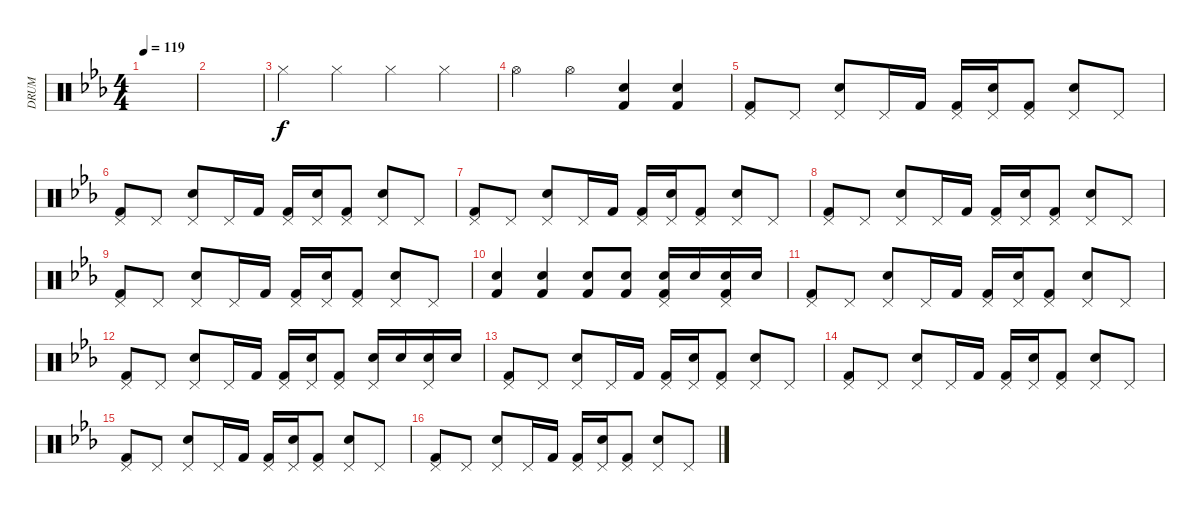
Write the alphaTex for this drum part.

\track ("DRUM" "DRUM") {instrument percussion}
\staff {score}
\articulation defaults
\ts (4 4)
\tempo 119
\clef neutral
\ks eb
|
|
"Hi-Hat (closed)".4 "Hi-Hat (closed)".4 "Hi-Hat (closed)".4 "Hi-Hat (closed)".4 |
"Hi-Hat (open)".4 "Hi-Hat (open)".4 ("Electric Snare (hit)" "Kick (hit) 2").4 ("Electric Snare (hit)" "Kick (hit) 2").4 |
("Pedal Hi-Hat (hit)" "Kick (hit) 2").8 "Pedal Hi-Hat (hit)".8 ("Pedal Hi-Hat (hit)" "Electric Snare (hit)").8 "Pedal Hi-Hat (hit)".16 "Kick (hit) 2".16 ("Pedal Hi-Hat (hit)" "Kick (hit) 2").16 ("Pedal Hi-Hat (hit)" "Electric Snare (hit)").16 ("Pedal Hi-Hat (hit)" "Kick (hit) 2").8 ("Pedal Hi-Hat (hit)" "Electric Snare (hit)").8 "Pedal Hi-Hat (hit)".8 |
("Pedal Hi-Hat (hit)" "Kick (hit) 2").8 "Pedal Hi-Hat (hit)".8 ("Pedal Hi-Hat (hit)" "Electric Snare (hit)").8 "Pedal Hi-Hat (hit)".16 "Kick (hit) 2".16 ("Pedal Hi-Hat (hit)" "Kick (hit) 2").16 ("Pedal Hi-Hat (hit)" "Electric Snare (hit)").16 ("Pedal Hi-Hat (hit)" "Kick (hit) 2").8 ("Pedal Hi-Hat (hit)" "Electric Snare (hit)").8 "Pedal Hi-Hat (hit)".8 |
("Pedal Hi-Hat (hit)" "Kick (hit) 2").8 "Pedal Hi-Hat (hit)".8 ("Pedal Hi-Hat (hit)" "Electric Snare (hit)").8 "Pedal Hi-Hat (hit)".16 "Kick (hit) 2".16 ("Pedal Hi-Hat (hit)" "Kick (hit) 2").16 ("Pedal Hi-Hat (hit)" "Electric Snare (hit)").16 ("Pedal Hi-Hat (hit)" "Kick (hit) 2").8 ("Pedal Hi-Hat (hit)" "Electric Snare (hit)").8 "Pedal Hi-Hat (hit)".8 |
("Pedal Hi-Hat (hit)" "Kick (hit) 2").8 "Pedal Hi-Hat (hit)".8 ("Pedal Hi-Hat (hit)" "Electric Snare (hit)").8 "Pedal Hi-Hat (hit)".16 "Kick (hit) 2".16 ("Pedal Hi-Hat (hit)" "Kick (hit) 2").16 ("Pedal Hi-Hat (hit)" "Electric Snare (hit)").16 ("Pedal Hi-Hat (hit)" "Kick (hit) 2").8 ("Pedal Hi-Hat (hit)" "Electric Snare (hit)").8 "Pedal Hi-Hat (hit)".8 |
("Pedal Hi-Hat (hit)" "Kick (hit) 2").8 "Pedal Hi-Hat (hit)".8 ("Pedal Hi-Hat (hit)" "Electric Snare (hit)").8 "Pedal Hi-Hat (hit)".16 "Kick (hit) 2".16 ("Pedal Hi-Hat (hit)" "Kick (hit) 2").16 ("Pedal Hi-Hat (hit)" "Electric Snare (hit)").16 ("Pedal Hi-Hat (hit)" "Kick (hit) 2").8 ("Pedal Hi-Hat (hit)" "Electric Snare (hit)").8 "Pedal Hi-Hat (hit)".8 |
("Electric Snare (hit)" "Kick (hit) 2").4 ("Electric Snare (hit)" "Kick (hit) 2").4 ("Electric Snare (hit)" "Kick (hit) 2").8 ("Electric Snare (hit)" "Kick (hit) 2").8 ("Pedal Hi-Hat (hit)" "Electric Snare (hit)" "Kick (hit) 2").16 "Electric Snare (hit)".16 ("Pedal Hi-Hat (hit)" "Electric Snare (hit)" "Kick (hit) 2").16 "Electric Snare (hit)".16 |
("Pedal Hi-Hat (hit)" "Kick (hit) 2").8 "Pedal Hi-Hat (hit)".8 ("Pedal Hi-Hat (hit)" "Electric Snare (hit)").8 "Pedal Hi-Hat (hit)".16 "Kick (hit) 2".16 ("Pedal Hi-Hat (hit)" "Kick (hit) 2").16 ("Pedal Hi-Hat (hit)" "Electric Snare (hit)").16 ("Pedal Hi-Hat (hit)" "Kick (hit) 2").8 ("Pedal Hi-Hat (hit)" "Electric Snare (hit)").8 "Pedal Hi-Hat (hit)".8 |
("Pedal Hi-Hat (hit)" "Kick (hit) 2").8 "Pedal Hi-Hat (hit)".8 ("Pedal Hi-Hat (hit)" "Electric Snare (hit)").8 "Pedal Hi-Hat (hit)".16 "Kick (hit) 2".16 ("Pedal Hi-Hat (hit)" "Kick (hit) 2").16 ("Pedal Hi-Hat (hit)" "Electric Snare (hit)").16 ("Pedal Hi-Hat (hit)" "Kick (hit) 2").8 ("Pedal Hi-Hat (hit)" "Electric Snare (hit)").16 "Electric Snare (hit)".16 ("Pedal Hi-Hat (hit)" "Electric Snare (hit)").16 "Electric Snare (hit)".16 |
("Pedal Hi-Hat (hit)" "Kick (hit) 2").8 "Pedal Hi-Hat (hit)".8 ("Pedal Hi-Hat (hit)" "Electric Snare (hit)").8 "Pedal Hi-Hat (hit)".16 "Kick (hit) 2".16 ("Pedal Hi-Hat (hit)" "Kick (hit) 2").16 ("Pedal Hi-Hat (hit)" "Electric Snare (hit)").16 ("Pedal Hi-Hat (hit)" "Kick (hit) 2").8 ("Pedal Hi-Hat (hit)" "Electric Snare (hit)").8 "Pedal Hi-Hat (hit)".8 |
("Pedal Hi-Hat (hit)" "Kick (hit) 2").8 "Pedal Hi-Hat (hit)".8 ("Pedal Hi-Hat (hit)" "Electric Snare (hit)").8 "Pedal Hi-Hat (hit)".16 "Kick (hit) 2".16 ("Pedal Hi-Hat (hit)" "Kick (hit) 2").16 ("Pedal Hi-Hat (hit)" "Electric Snare (hit)").16 ("Pedal Hi-Hat (hit)" "Kick (hit) 2").8 ("Pedal Hi-Hat (hit)" "Electric Snare (hit)").8 "Pedal Hi-Hat (hit)".8 |
("Pedal Hi-Hat (hit)" "Kick (hit) 2").8 "Pedal Hi-Hat (hit)".8 ("Pedal Hi-Hat (hit)" "Electric Snare (hit)").8 "Pedal Hi-Hat (hit)".16 "Kick (hit) 2".16 ("Pedal Hi-Hat (hit)" "Kick (hit) 2").16 ("Pedal Hi-Hat (hit)" "Electric Snare (hit)").16 ("Pedal Hi-Hat (hit)" "Kick (hit) 2").8 ("Pedal Hi-Hat (hit)" "Electric Snare (hit)").8 "Pedal Hi-Hat (hit)".8 |
("Pedal Hi-Hat (hit)" "Kick (hit) 2").8 "Pedal Hi-Hat (hit)".8 ("Pedal Hi-Hat (hit)" "Electric Snare (hit)").8 "Pedal Hi-Hat (hit)".16 "Kick (hit) 2".16 ("Pedal Hi-Hat (hit)" "Kick (hit) 2").16 ("Pedal Hi-Hat (hit)" "Electric Snare (hit)").16 ("Pedal Hi-Hat (hit)" "Kick (hit) 2").8 ("Pedal Hi-Hat (hit)" "Electric Snare (hit)").8 "Pedal Hi-Hat (hit)".8
